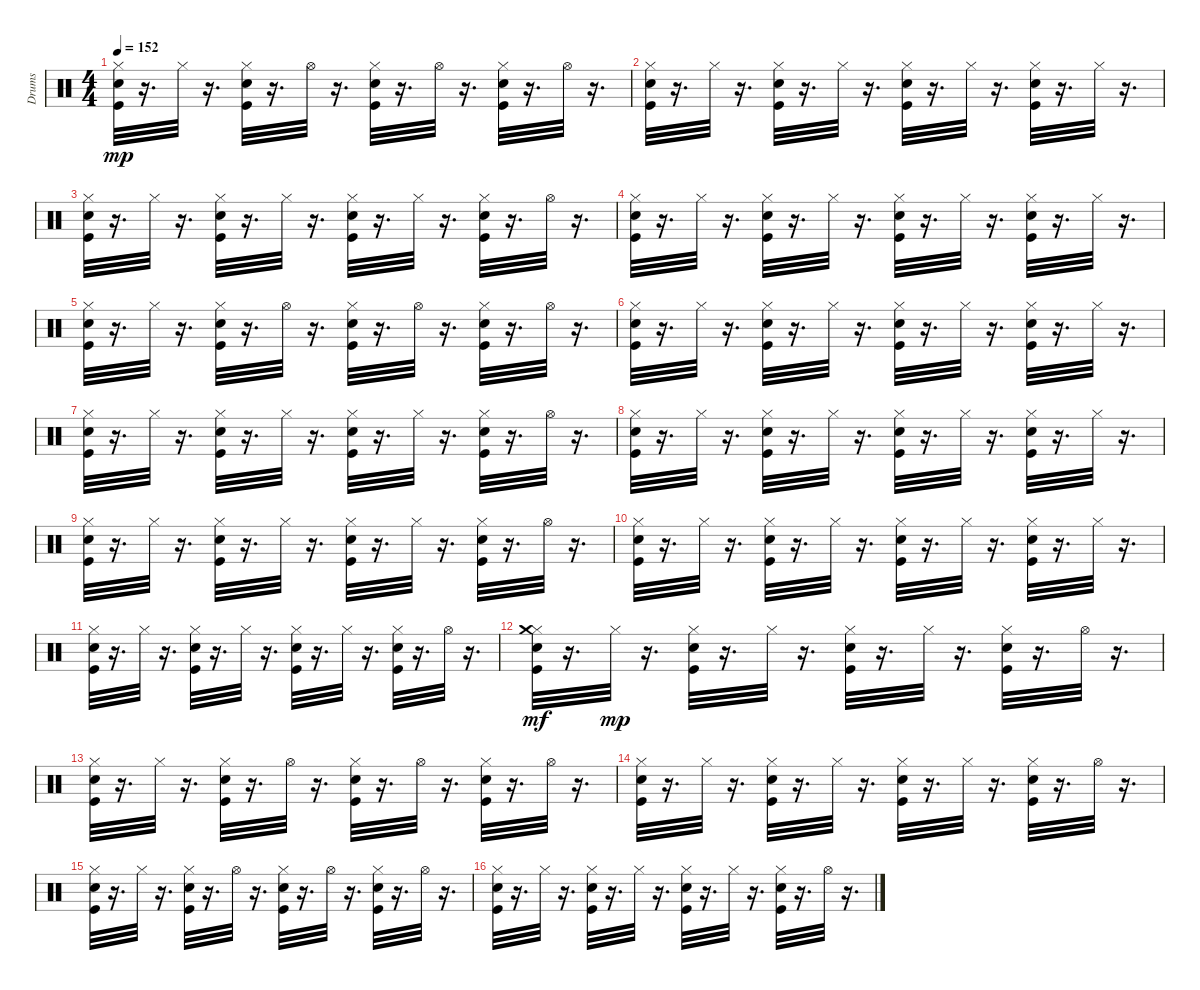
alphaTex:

\track ("Drums   " "Drums   ") {instrument percussion}
\staff {score}
\articulation defaults
\ts (4 4)
\tempo 152
\clef neutral
\ks c
("Snare (hit) 2" "Hi-Hat (closed)" "Kick (hit)").32{dy mp} r.16{d} "Hi-Hat (closed)".32 r.16{d} ("Snare (hit) 2" "Hi-Hat (closed)" "Kick (hit)").32 r.16{d} "Hi-Hat (open)".32 r.16{d} ("Snare (hit) 2" "Hi-Hat (closed)" "Kick (hit)").32 r.16{d} "Hi-Hat (open)".32 r.16{d} ("Snare (hit) 2" "Hi-Hat (closed)" "Kick (hit)").32 r.16{d} "Hi-Hat (open)".32 r.16{d} |
("Snare (hit) 2" "Hi-Hat (closed)" "Kick (hit)").32 r.16{d} "Hi-Hat (closed)".32 r.16{d} ("Snare (hit) 2" "Hi-Hat (closed)" "Kick (hit)").32 r.16{d} "Hi-Hat (closed)".32 r.16{d} ("Snare (hit) 2" "Hi-Hat (closed)" "Kick (hit)").32 r.16{d} "Hi-Hat (closed)".32 r.16{d} ("Snare (hit) 2" "Hi-Hat (closed)" "Kick (hit)").32 r.16{d} "Hi-Hat (closed)".32 r.16{d} |
("Snare (hit) 2" "Hi-Hat (closed)" "Kick (hit)").32 r.16{d} "Hi-Hat (closed)".32 r.16{d} ("Snare (hit) 2" "Hi-Hat (closed)" "Kick (hit)").32 r.16{d} "Hi-Hat (closed)".32 r.16{d} ("Snare (hit) 2" "Hi-Hat (closed)" "Kick (hit)").32 r.16{d} "Hi-Hat (closed)".32 r.16{d} ("Snare (hit) 2" "Hi-Hat (closed)" "Kick (hit)").32 r.16{d} "Hi-Hat (open)".32 r.16{d} |
("Snare (hit) 2" "Hi-Hat (closed)" "Kick (hit)").32 r.16{d} "Hi-Hat (closed)".32 r.16{d} ("Snare (hit) 2" "Hi-Hat (closed)" "Kick (hit)").32 r.16{d} "Hi-Hat (closed)".32 r.16{d} ("Snare (hit) 2" "Hi-Hat (closed)" "Kick (hit)").32 r.16{d} "Hi-Hat (closed)".32 r.16{d} ("Snare (hit) 2" "Hi-Hat (closed)" "Kick (hit)").32 r.16{d} "Hi-Hat (closed)".32 r.16{d} |
("Snare (hit) 2" "Hi-Hat (closed)" "Kick (hit)").32 r.16{d} "Hi-Hat (closed)".32 r.16{d} ("Snare (hit) 2" "Hi-Hat (closed)" "Kick (hit)").32 r.16{d} "Hi-Hat (open)".32 r.16{d} ("Snare (hit) 2" "Hi-Hat (closed)" "Kick (hit)").32 r.16{d} "Hi-Hat (open)".32 r.16{d} ("Snare (hit) 2" "Hi-Hat (closed)" "Kick (hit)").32 r.16{d} "Hi-Hat (open)".32 r.16{d} |
("Snare (hit) 2" "Hi-Hat (closed)" "Kick (hit)").32 r.16{d} "Hi-Hat (closed)".32 r.16{d} ("Snare (hit) 2" "Hi-Hat (closed)" "Kick (hit)").32 r.16{d} "Hi-Hat (closed)".32 r.16{d} ("Snare (hit) 2" "Hi-Hat (closed)" "Kick (hit)").32 r.16{d} "Hi-Hat (closed)".32 r.16{d} ("Snare (hit) 2" "Hi-Hat (closed)" "Kick (hit)").32 r.16{d} "Hi-Hat (closed)".32 r.16{d} |
("Snare (hit) 2" "Hi-Hat (closed)" "Kick (hit)").32 r.16{d} "Hi-Hat (closed)".32 r.16{d} ("Snare (hit) 2" "Hi-Hat (closed)" "Kick (hit)").32 r.16{d} "Hi-Hat (closed)".32 r.16{d} ("Snare (hit) 2" "Hi-Hat (closed)" "Kick (hit)").32 r.16{d} "Hi-Hat (closed)".32 r.16{d} ("Snare (hit) 2" "Hi-Hat (closed)" "Kick (hit)").32 r.16{d} "Hi-Hat (open)".32 r.16{d} |
("Snare (hit) 2" "Hi-Hat (closed)" "Kick (hit)").32 r.16{d} "Hi-Hat (closed)".32 r.16{d} ("Snare (hit) 2" "Hi-Hat (closed)" "Kick (hit)").32 r.16{d} "Hi-Hat (closed)".32 r.16{d} ("Snare (hit) 2" "Hi-Hat (closed)" "Kick (hit)").32 r.16{d} "Hi-Hat (closed)".32 r.16{d} ("Snare (hit) 2" "Hi-Hat (closed)" "Kick (hit)").32 r.16{d} "Hi-Hat (closed)".32 r.16{d} |
("Snare (hit) 2" "Hi-Hat (closed)" "Kick (hit)").32 r.16{d} "Hi-Hat (closed)".32 r.16{d} ("Snare (hit) 2" "Hi-Hat (closed)" "Kick (hit)").32 r.16{d} "Hi-Hat (closed)".32 r.16{d} ("Snare (hit) 2" "Hi-Hat (closed)" "Kick (hit)").32 r.16{d} "Hi-Hat (closed)".32 r.16{d} ("Snare (hit) 2" "Hi-Hat (closed)" "Kick (hit)").32 r.16{d} "Hi-Hat (open)".32 r.16{d} |
("Snare (hit) 2" "Hi-Hat (closed)" "Kick (hit)").32 r.16{d} "Hi-Hat (closed)".32 r.16{d} ("Snare (hit) 2" "Hi-Hat (closed)" "Kick (hit)").32 r.16{d} "Hi-Hat (closed)".32 r.16{d} ("Snare (hit) 2" "Hi-Hat (closed)" "Kick (hit)").32 r.16{d} "Hi-Hat (closed)".32 r.16{d} ("Snare (hit) 2" "Hi-Hat (closed)" "Kick (hit)").32 r.16{d} "Hi-Hat (closed)".32 r.16{d} |
("Snare (hit) 2" "Hi-Hat (closed)" "Kick (hit)").32 r.16{d} "Hi-Hat (closed)".32 r.16{d} ("Snare (hit) 2" "Hi-Hat (closed)" "Kick (hit)").32 r.16{d} "Hi-Hat (closed)".32 r.16{d} ("Snare (hit) 2" "Hi-Hat (closed)" "Kick (hit)").32 r.16{d} "Hi-Hat (closed)".32 r.16{d} ("Snare (hit) 2" "Hi-Hat (closed)" "Kick (hit)").32 r.16{d} "Hi-Hat (open)".32 r.16{d} |
("Snare (hit) 2" "Hi-Hat (closed)" "Kick (hit)" "Crash medium (hit)").32{dy mf} r.16{d} "Hi-Hat (closed)".32{dy mp} r.16{d} ("Snare (hit) 2" "Hi-Hat (closed)" "Kick (hit)").32 r.16{d} "Hi-Hat (closed)".32 r.16{d} ("Snare (hit) 2" "Hi-Hat (closed)" "Kick (hit)").32 r.16{d} "Hi-Hat (closed)".32 r.16{d} ("Snare (hit) 2" "Hi-Hat (closed)" "Kick (hit)").32 r.16{d} "Hi-Hat (open)".32 r.16{d} |
("Snare (hit) 2" "Hi-Hat (closed)" "Kick (hit)").32 r.16{d} "Hi-Hat (closed)".32 r.16{d} ("Snare (hit) 2" "Hi-Hat (closed)" "Kick (hit)").32 r.16{d} "Hi-Hat (open)".32 r.16{d} ("Snare (hit) 2" "Hi-Hat (closed)" "Kick (hit)").32 r.16{d} "Hi-Hat (open)".32 r.16{d} ("Snare (hit) 2" "Hi-Hat (closed)" "Kick (hit)").32 r.16{d} "Hi-Hat (open)".32 r.16{d} |
("Snare (hit) 2" "Hi-Hat (closed)" "Kick (hit)").32 r.16{d} "Hi-Hat (closed)".32 r.16{d} ("Snare (hit) 2" "Hi-Hat (closed)" "Kick (hit)").32 r.16{d} "Hi-Hat (closed)".32 r.16{d} ("Snare (hit) 2" "Hi-Hat (closed)" "Kick (hit)").32 r.16{d} "Hi-Hat (closed)".32 r.16{d} ("Snare (hit) 2" "Hi-Hat (closed)" "Kick (hit)").32 r.16{d} "Hi-Hat (open)".32 r.16{d} |
("Snare (hit) 2" "Hi-Hat (closed)" "Kick (hit)").32 r.16{d} "Hi-Hat (closed)".32 r.16{d} ("Snare (hit) 2" "Hi-Hat (closed)" "Kick (hit)").32 r.16{d} "Hi-Hat (open)".32 r.16{d} ("Snare (hit) 2" "Hi-Hat (closed)" "Kick (hit)").32 r.16{d} "Hi-Hat (open)".32 r.16{d} ("Snare (hit) 2" "Hi-Hat (closed)" "Kick (hit)").32 r.16{d} "Hi-Hat (open)".32 r.16{d} |
("Snare (hit) 2" "Hi-Hat (closed)" "Kick (hit)").32 r.16{d} "Hi-Hat (closed)".32 r.16{d} ("Snare (hit) 2" "Hi-Hat (closed)" "Kick (hit)").32 r.16{d} "Hi-Hat (closed)".32 r.16{d} ("Snare (hit) 2" "Hi-Hat (closed)" "Kick (hit)").32 r.16{d} "Hi-Hat (closed)".32 r.16{d} ("Snare (hit) 2" "Hi-Hat (closed)" "Kick (hit)").32 r.16{d} "Hi-Hat (open)".32 r.16{d}
